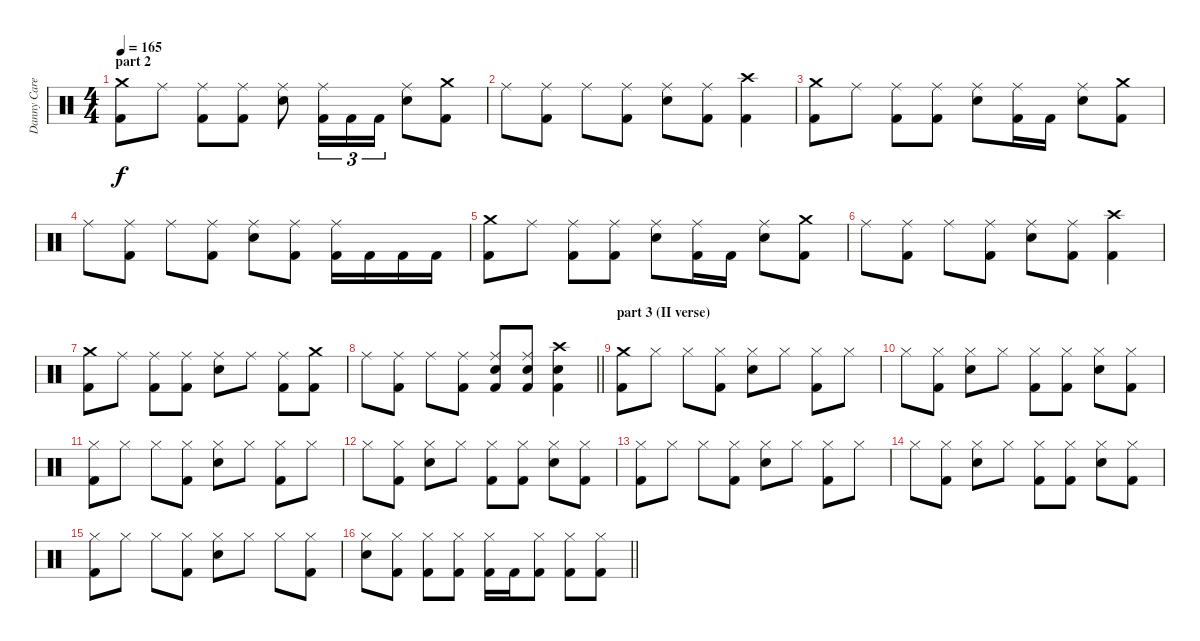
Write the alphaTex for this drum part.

\track ("Danny Carey / drums" "Danny Care") {instrument percussion}
\staff {score}
\articulation defaults
\ts (4 4)
\section ("" "part 2")
\tempo 165
\clef neutral
\ks c
("Crash medium (hit)" "Kick (hit) 2").8{dy f} "Ride (middle)".8 ("Ride (middle)" "Kick (hit) 2").8 ("Ride (middle)" "Kick (hit) 2").8 ("Ride (middle)" "Electric Snare (hit)").8 ("Ride (middle)" "Kick (hit) 2").16{tu (3 2)} "Kick (hit) 2".16{tu (3 2)} "Kick (hit) 2".16{tu (3 2)} ("Ride (middle)" "Electric Snare (hit)").8 ("Crash medium (hit)" "Kick (hit) 2").8 |
"Ride (middle)".8 ("Ride (middle)" "Kick (hit) 2").8 "Ride (middle)".8 ("Ride (middle)" "Kick (hit) 2").8 ("Ride (middle)" "Electric Snare (hit)").8 ("Ride (middle)" "Kick (hit) 2").8 ("Crash high (hit)" "Kick (hit) 2").4 |
("Crash medium (hit)" "Kick (hit) 2").8 "Ride (middle)".8 ("Ride (middle)" "Kick (hit) 2").8 ("Ride (middle)" "Kick (hit) 2").8 ("Ride (middle)" "Electric Snare (hit)").8 ("Ride (middle)" "Kick (hit) 2").16 "Kick (hit) 2".16 ("Ride (middle)" "Electric Snare (hit)").8 ("Crash medium (hit)" "Kick (hit) 2").8 |
"Ride (middle)".8 ("Ride (middle)" "Kick (hit) 2").8 "Ride (middle)".8 ("Ride (middle)" "Kick (hit) 2").8 ("Ride (middle)" "Electric Snare (hit)").8 ("Ride (middle)" "Kick (hit) 2").8 ("Ride (middle)" "Kick (hit) 2").16 "Kick (hit) 2".16 "Kick (hit) 2".16 "Kick (hit) 2".16 |
("Crash medium (hit)" "Kick (hit) 2").8 "Ride (middle)".8 ("Ride (middle)" "Kick (hit) 2").8 ("Ride (middle)" "Kick (hit) 2").8 ("Ride (middle)" "Electric Snare (hit)").8 ("Ride (middle)" "Kick (hit) 2").16 "Kick (hit) 2".16 ("Ride (middle)" "Electric Snare (hit)").8 ("Crash medium (hit)" "Kick (hit) 2").8 |
"Ride (middle)".8 ("Ride (middle)" "Kick (hit) 2").8 "Ride (middle)".8 ("Ride (middle)" "Kick (hit) 2").8 ("Ride (middle)" "Electric Snare (hit)").8 ("Ride (middle)" "Kick (hit) 2").8 ("Crash high (hit)" "Kick (hit) 2").4 |
("Crash medium (hit)" "Kick (hit) 2").8 "Ride (middle)".8 ("Ride (middle)" "Kick (hit) 2").8 ("Ride (middle)" "Kick (hit) 2").8 ("Ride (middle)" "Electric Snare (hit)").8 "Ride (middle)".8 ("Ride (middle)" "Kick (hit) 2").8 ("Crash medium (hit)" "Kick (hit) 2").8 |
\barLineRight lightlight "Ride (middle)".8
("Ride (middle)" "Kick (hit) 2").8 "Ride (middle)".8 ("Ride (middle)" "Kick (hit) 2").8 ("Ride (middle)" "Electric Snare (hit)" "Kick (hit) 2").8 ("Ride (middle)" "Electric Snare (hit)" "Kick (hit) 2").8 ("Crash high (hit)" "Electric Snare (hit)" "Kick (hit) 2").4 |
\section ("" "part 3 (II verse)")
("Crash medium (hit)" "Kick (hit) 2").8 "Hi-Hat (closed)".8 "Hi-Hat (closed)".8 ("Hi-Hat (closed)" "Kick (hit) 2").8 ("Hi-Hat (closed)" "Electric Snare (hit)").8 "Hi-Hat (closed)".8 ("Hi-Hat (closed)" "Kick (hit) 2").8 "Hi-Hat (closed)".8 |
"Hi-Hat (closed)".8 ("Hi-Hat (closed)" "Kick (hit) 2").8 ("Hi-Hat (closed)" "Electric Snare (hit)").8 "Hi-Hat (closed)".8 ("Hi-Hat (closed)" "Kick (hit) 2").8 ("Hi-Hat (closed)" "Kick (hit) 2").8 ("Hi-Hat (closed)" "Electric Snare (hit)").8 ("Hi-Hat (closed)" "Kick (hit) 2").8 |
("Hi-Hat (closed)" "Kick (hit) 2").8 "Hi-Hat (closed)".8 "Hi-Hat (closed)".8 ("Hi-Hat (closed)" "Kick (hit) 2").8 ("Hi-Hat (closed)" "Electric Snare (hit)").8 "Hi-Hat (closed)".8 ("Hi-Hat (closed)" "Kick (hit) 2").8 "Hi-Hat (closed)".8 |
"Hi-Hat (closed)".8 ("Hi-Hat (closed)" "Kick (hit) 2").8 ("Hi-Hat (closed)" "Electric Snare (hit)").8 "Hi-Hat (closed)".8 ("Hi-Hat (closed)" "Kick (hit) 2").8 ("Hi-Hat (closed)" "Kick (hit) 2").8 ("Hi-Hat (closed)" "Electric Snare (hit)").8 ("Hi-Hat (closed)" "Kick (hit) 2").8 |
("Hi-Hat (closed)" "Kick (hit) 2").8 "Hi-Hat (closed)".8 "Hi-Hat (closed)".8 ("Hi-Hat (closed)" "Kick (hit) 2").8 ("Hi-Hat (closed)" "Electric Snare (hit)").8 "Hi-Hat (closed)".8 ("Hi-Hat (closed)" "Kick (hit) 2").8 "Hi-Hat (closed)".8 |
"Hi-Hat (closed)".8 ("Hi-Hat (closed)" "Kick (hit) 2").8 ("Hi-Hat (closed)" "Electric Snare (hit)").8 "Hi-Hat (closed)".8 ("Hi-Hat (closed)" "Kick (hit) 2").8 ("Hi-Hat (closed)" "Kick (hit) 2").8 ("Hi-Hat (closed)" "Electric Snare (hit)").8 ("Hi-Hat (closed)" "Kick (hit) 2").8 |
("Hi-Hat (closed)" "Kick (hit) 2").8 "Hi-Hat (closed)".8 "Hi-Hat (closed)".8 ("Hi-Hat (closed)" "Kick (hit) 2").8 ("Hi-Hat (closed)" "Electric Snare (hit)").8 "Hi-Hat (closed)".8 "Hi-Hat (closed)".8 ("Hi-Hat (closed)" "Kick (hit) 2").8 |
\barLineRight lightlight
("Hi-Hat (closed)" "Electric Snare (hit)").8 ("Hi-Hat (closed)" "Kick (hit) 2").8 ("Hi-Hat (closed)" "Kick (hit) 2").8 ("Hi-Hat (closed)" "Kick (hit) 2").8 ("Hi-Hat (closed)" "Kick (hit) 2").16 "Kick (hit) 2".16 ("Hi-Hat (closed)" "Kick (hit) 2").8 ("Hi-Hat (closed)" "Kick (hit) 2").8 ("Hi-Hat (closed)" "Kick (hit) 2").8
